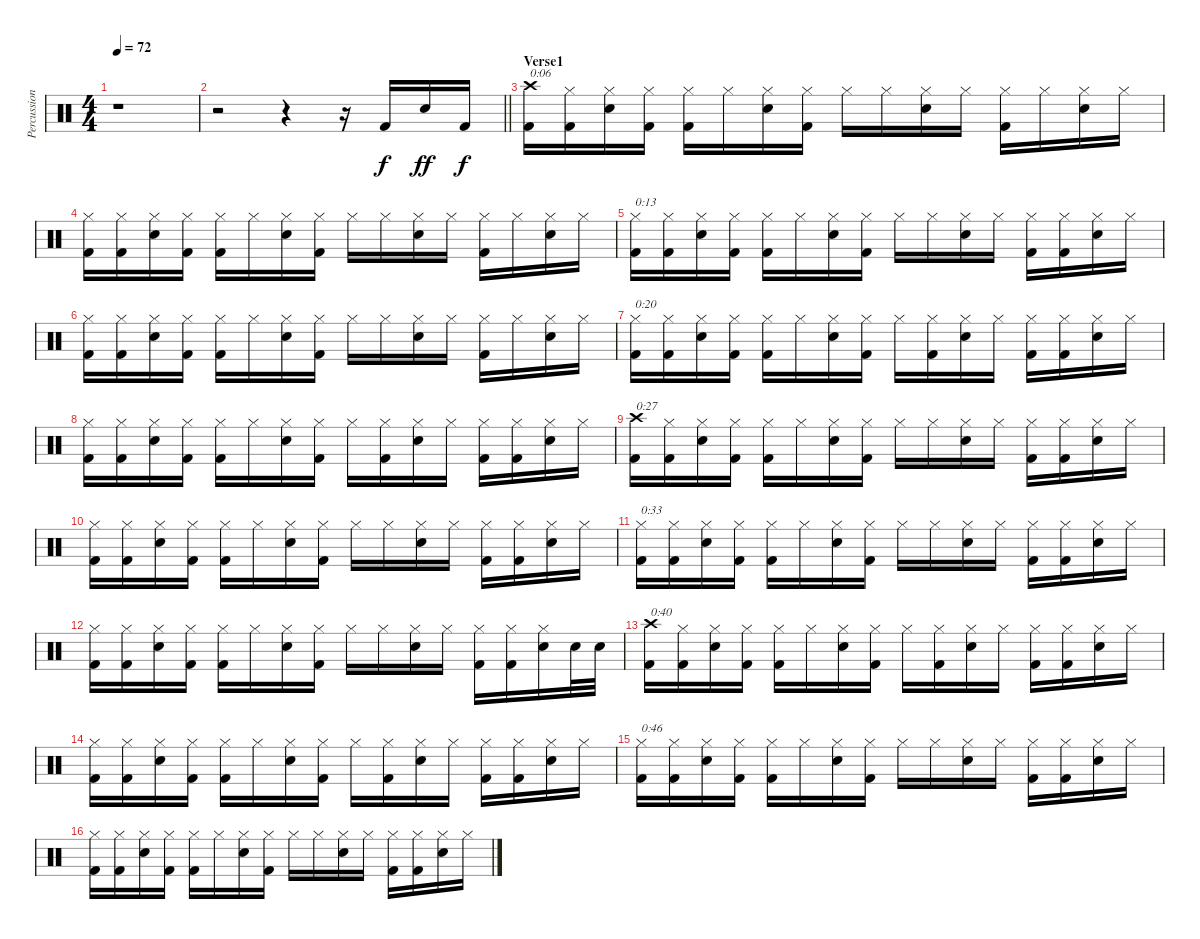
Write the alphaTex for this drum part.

\track ("Percussion" "Percussion") {instrument percussion}
\staff {score}
\articulation defaults
\ts (4 4)
\tempo 72
\clef neutral
\ks c
r.1{dy f} |
\barLineRight lightlight
r.2 r.4 r.16 "Kick (hit) 2".16 "Snare (hit) 2".16{dy ff} "Kick (hit) 2".16{dy f} |
\section ("" "Verse1")
("Crash high (hit)" "Kick (hit) 2").16{txt "0:06"} ("Hi-Hat (closed)" "Kick (hit) 2").16 ("Hi-Hat (closed)" "Snare (hit) 2").16 ("Hi-Hat (closed)" "Kick (hit) 2").16 ("Hi-Hat (closed)" "Kick (hit) 2").16 "Hi-Hat (closed)".16 ("Hi-Hat (closed)" "Snare (hit) 2").16 ("Hi-Hat (closed)" "Kick (hit) 2").16 "Hi-Hat (closed)".16 "Hi-Hat (closed)".16 ("Hi-Hat (closed)" "Snare (hit) 2").16 "Hi-Hat (closed)".16 ("Hi-Hat (closed)" "Kick (hit) 2").16 "Hi-Hat (closed)".16 ("Hi-Hat (closed)" "Snare (hit) 2").16 "Hi-Hat (closed)".16 |
("Hi-Hat (closed)" "Kick (hit) 2").16 ("Hi-Hat (closed)" "Kick (hit) 2").16 ("Hi-Hat (closed)" "Snare (hit) 2").16 ("Hi-Hat (closed)" "Kick (hit) 2").16 ("Hi-Hat (closed)" "Kick (hit) 2").16 "Hi-Hat (closed)".16 ("Hi-Hat (closed)" "Snare (hit) 2").16 ("Hi-Hat (closed)" "Kick (hit) 2").16 "Hi-Hat (closed)".16 "Hi-Hat (closed)".16 ("Hi-Hat (closed)" "Snare (hit) 2").16 "Hi-Hat (closed)".16 ("Hi-Hat (closed)" "Kick (hit) 2").16 "Hi-Hat (closed)".16 ("Hi-Hat (closed)" "Snare (hit) 2").16 "Hi-Hat (closed)".16 |
("Hi-Hat (closed)" "Kick (hit) 2").16{txt "0:13"} ("Hi-Hat (closed)" "Kick (hit) 2").16 ("Hi-Hat (closed)" "Snare (hit) 2").16 ("Hi-Hat (closed)" "Kick (hit) 2").16 ("Hi-Hat (closed)" "Kick (hit) 2").16 "Hi-Hat (closed)".16 ("Hi-Hat (closed)" "Snare (hit) 2").16 ("Hi-Hat (closed)" "Kick (hit) 2").16 "Hi-Hat (closed)".16 "Hi-Hat (closed)".16 ("Hi-Hat (closed)" "Snare (hit) 2").16 "Hi-Hat (closed)".16 ("Hi-Hat (closed)" "Kick (hit) 2").16 ("Hi-Hat (closed)" "Kick (hit) 2").16 ("Hi-Hat (closed)" "Snare (hit) 2").16 "Hi-Hat (closed)".16 |
("Hi-Hat (closed)" "Kick (hit) 2").16 ("Hi-Hat (closed)" "Kick (hit) 2").16 ("Hi-Hat (closed)" "Snare (hit) 2").16 ("Hi-Hat (closed)" "Kick (hit) 2").16 ("Hi-Hat (closed)" "Kick (hit) 2").16 "Hi-Hat (closed)".16 ("Hi-Hat (closed)" "Snare (hit) 2").16 ("Hi-Hat (closed)" "Kick (hit) 2").16 "Hi-Hat (closed)".16 "Hi-Hat (closed)".16 ("Hi-Hat (closed)" "Snare (hit) 2").16 "Hi-Hat (closed)".16 ("Hi-Hat (closed)" "Kick (hit) 2").16 "Hi-Hat (closed)".16 ("Hi-Hat (closed)" "Snare (hit) 2").16 "Hi-Hat (closed)".16 |
("Hi-Hat (closed)" "Kick (hit) 2").16{txt "0:20"} ("Hi-Hat (closed)" "Kick (hit) 2").16 ("Hi-Hat (closed)" "Snare (hit) 2").16 ("Hi-Hat (closed)" "Kick (hit) 2").16 ("Hi-Hat (closed)" "Kick (hit) 2").16 "Hi-Hat (closed)".16 ("Hi-Hat (closed)" "Snare (hit) 2").16 ("Hi-Hat (closed)" "Kick (hit) 2").16 "Hi-Hat (closed)".16 ("Hi-Hat (closed)" "Kick (hit) 2").16 ("Hi-Hat (closed)" "Snare (hit) 2").16 "Hi-Hat (closed)".16 ("Hi-Hat (closed)" "Kick (hit) 2").16 ("Hi-Hat (closed)" "Kick (hit) 2").16 ("Hi-Hat (closed)" "Snare (hit) 2").16 "Hi-Hat (closed)".16 |
("Hi-Hat (closed)" "Kick (hit) 2").16 ("Hi-Hat (closed)" "Kick (hit) 2").16 ("Hi-Hat (closed)" "Snare (hit) 2").16 ("Hi-Hat (closed)" "Kick (hit) 2").16 ("Hi-Hat (closed)" "Kick (hit) 2").16 "Hi-Hat (closed)".16 ("Hi-Hat (closed)" "Snare (hit) 2").16 ("Hi-Hat (closed)" "Kick (hit) 2").16 "Hi-Hat (closed)".16 ("Hi-Hat (closed)" "Kick (hit) 2").16 ("Hi-Hat (closed)" "Snare (hit) 2").16 "Hi-Hat (closed)".16 ("Hi-Hat (closed)" "Kick (hit) 2").16 ("Hi-Hat (closed)" "Kick (hit) 2").16 ("Hi-Hat (closed)" "Snare (hit) 2").16 "Hi-Hat (closed)".16 |
("Crash high (hit)" "Kick (hit) 2").16{txt "0:27"} ("Hi-Hat (closed)" "Kick (hit) 2").16 ("Hi-Hat (closed)" "Snare (hit) 2").16 ("Hi-Hat (closed)" "Kick (hit) 2").16 ("Hi-Hat (closed)" "Kick (hit) 2").16 "Hi-Hat (closed)".16 ("Hi-Hat (closed)" "Snare (hit) 2").16 ("Hi-Hat (closed)" "Kick (hit) 2").16 "Hi-Hat (closed)".16 "Hi-Hat (closed)".16 ("Hi-Hat (closed)" "Snare (hit) 2").16 "Hi-Hat (closed)".16 ("Hi-Hat (closed)" "Kick (hit) 2").16 ("Hi-Hat (closed)" "Kick (hit) 2").16 ("Hi-Hat (closed)" "Snare (hit) 2").16 "Hi-Hat (closed)".16 |
("Hi-Hat (closed)" "Kick (hit) 2").16 ("Hi-Hat (closed)" "Kick (hit) 2").16 ("Hi-Hat (closed)" "Snare (hit) 2").16 ("Hi-Hat (closed)" "Kick (hit) 2").16 ("Hi-Hat (closed)" "Kick (hit) 2").16 "Hi-Hat (closed)".16 ("Hi-Hat (closed)" "Snare (hit) 2").16 ("Hi-Hat (closed)" "Kick (hit) 2").16 "Hi-Hat (closed)".16 "Hi-Hat (closed)".16 ("Hi-Hat (closed)" "Snare (hit) 2").16 "Hi-Hat (closed)".16 ("Hi-Hat (closed)" "Kick (hit) 2").16 ("Hi-Hat (closed)" "Kick (hit) 2").16 ("Hi-Hat (closed)" "Snare (hit) 2").16 "Hi-Hat (closed)".16 |
("Hi-Hat (closed)" "Kick (hit) 2").16{txt "0:33"} ("Hi-Hat (closed)" "Kick (hit) 2").16 ("Hi-Hat (closed)" "Snare (hit) 2").16 ("Hi-Hat (closed)" "Kick (hit) 2").16 ("Hi-Hat (closed)" "Kick (hit) 2").16 "Hi-Hat (closed)".16 ("Hi-Hat (closed)" "Snare (hit) 2").16 ("Hi-Hat (closed)" "Kick (hit) 2").16 "Hi-Hat (closed)".16 "Hi-Hat (closed)".16 ("Hi-Hat (closed)" "Snare (hit) 2").16 "Hi-Hat (closed)".16 ("Hi-Hat (closed)" "Kick (hit) 2").16 ("Hi-Hat (closed)" "Kick (hit) 2").16 ("Hi-Hat (closed)" "Snare (hit) 2").16 "Hi-Hat (closed)".16 |
("Hi-Hat (closed)" "Kick (hit) 2").16 ("Hi-Hat (closed)" "Kick (hit) 2").16 ("Hi-Hat (closed)" "Snare (hit) 2").16 ("Hi-Hat (closed)" "Kick (hit) 2").16 ("Hi-Hat (closed)" "Kick (hit) 2").16 "Hi-Hat (closed)".16 ("Hi-Hat (closed)" "Snare (hit) 2").16 ("Hi-Hat (closed)" "Kick (hit) 2").16 "Hi-Hat (closed)".16 "Hi-Hat (closed)".16 ("Hi-Hat (closed)" "Snare (hit) 2").16 "Hi-Hat (closed)".16 ("Hi-Hat (closed)" "Kick (hit) 2").16 ("Hi-Hat (closed)" "Kick (hit) 2").16 ("Hi-Hat (closed)" "Snare (hit) 2").16 "Snare (hit) 2".32 "Snare (hit) 2".32 |
("Crash high (hit)" "Kick (hit) 2").16{txt "0:40"} ("Hi-Hat (closed)" "Kick (hit) 2").16 ("Hi-Hat (closed)" "Snare (hit) 2").16 ("Hi-Hat (closed)" "Kick (hit) 2").16 ("Hi-Hat (closed)" "Kick (hit) 2").16 "Hi-Hat (closed)".16 ("Hi-Hat (closed)" "Snare (hit) 2").16 ("Hi-Hat (closed)" "Kick (hit) 2").16 "Hi-Hat (closed)".16 ("Hi-Hat (closed)" "Kick (hit) 2").16 ("Hi-Hat (closed)" "Snare (hit) 2").16 "Hi-Hat (closed)".16 ("Hi-Hat (closed)" "Kick (hit) 2").16 ("Hi-Hat (closed)" "Kick (hit) 2").16 ("Hi-Hat (closed)" "Snare (hit) 2").16 "Hi-Hat (closed)".16 |
("Hi-Hat (closed)" "Kick (hit) 2").16 ("Hi-Hat (closed)" "Kick (hit) 2").16 ("Hi-Hat (closed)" "Snare (hit) 2").16 ("Hi-Hat (closed)" "Kick (hit) 2").16 ("Hi-Hat (closed)" "Kick (hit) 2").16 "Hi-Hat (closed)".16 ("Hi-Hat (closed)" "Snare (hit) 2").16 ("Hi-Hat (closed)" "Kick (hit) 2").16 "Hi-Hat (closed)".16 ("Hi-Hat (closed)" "Kick (hit) 2").16 ("Hi-Hat (closed)" "Snare (hit) 2").16 "Hi-Hat (closed)".16 ("Hi-Hat (closed)" "Kick (hit) 2").16 ("Hi-Hat (closed)" "Kick (hit) 2").16 ("Hi-Hat (closed)" "Snare (hit) 2").16 "Hi-Hat (closed)".16 |
("Hi-Hat (closed)" "Kick (hit) 2").16{txt "0:46"} ("Hi-Hat (closed)" "Kick (hit) 2").16 ("Hi-Hat (closed)" "Snare (hit) 2").16 ("Hi-Hat (closed)" "Kick (hit) 2").16 ("Hi-Hat (closed)" "Kick (hit) 2").16 "Hi-Hat (closed)".16 ("Hi-Hat (closed)" "Snare (hit) 2").16 ("Hi-Hat (closed)" "Kick (hit) 2").16 "Hi-Hat (closed)".16 "Hi-Hat (closed)".16 ("Hi-Hat (closed)" "Snare (hit) 2").16 "Hi-Hat (closed)".16 ("Hi-Hat (closed)" "Kick (hit) 2").16 ("Hi-Hat (closed)" "Kick (hit) 2").16 ("Hi-Hat (closed)" "Snare (hit) 2").16 "Hi-Hat (closed)".16 |
("Hi-Hat (closed)" "Kick (hit) 2").16 ("Hi-Hat (closed)" "Kick (hit) 2").16 ("Hi-Hat (closed)" "Snare (hit) 2").16 ("Hi-Hat (closed)" "Kick (hit) 2").16 ("Hi-Hat (closed)" "Kick (hit) 2").16 "Hi-Hat (closed)".16 ("Hi-Hat (closed)" "Snare (hit) 2").16 ("Hi-Hat (closed)" "Kick (hit) 2").16 "Hi-Hat (closed)".16 "Hi-Hat (closed)".16 ("Hi-Hat (closed)" "Snare (hit) 2").16 "Hi-Hat (closed)".16 ("Hi-Hat (closed)" "Kick (hit) 2").16 ("Hi-Hat (closed)" "Kick (hit) 2").16 ("Hi-Hat (closed)" "Snare (hit) 2").16 "Hi-Hat (closed)".16
